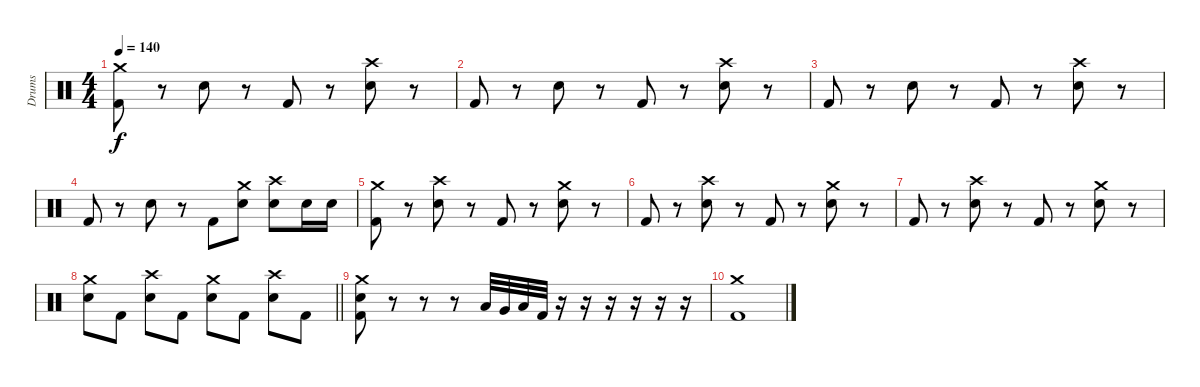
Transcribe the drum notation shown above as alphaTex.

\track ("Drums" "Drums") {instrument percussion}
\staff {score}
\articulation defaults
\ts (4 4)
\tempo 140
\clef neutral
\ks c
("Crash medium (hit)" "Kick (hit) 2").8{dy f} r.8 "Snare (hit) 2".8 r.8 "Kick (hit) 2".8 r.8 ("Crash high (hit)" "Snare (hit) 2").8 r.8 |
"Kick (hit) 2".8 r.8 "Snare (hit) 2".8 r.8 "Kick (hit) 2".8 r.8 ("Crash high (hit)" "Snare (hit) 2").8 r.8 |
"Kick (hit) 2".8 r.8 "Snare (hit) 2".8 r.8 "Kick (hit) 2".8 r.8 ("Crash high (hit)" "Snare (hit) 2").8 r.8 |
"Kick (hit) 2".8 r.8 "Snare (hit) 2".8 r.8 "Kick (hit) 2".8 ("Crash medium (hit)" "Snare (hit) 2").8 ("Crash high (hit)" "Snare (hit) 2").8 "Snare (hit) 2".16 "Snare (hit) 2".16 |
("Crash medium (hit)" "Kick (hit) 2").8 r.8 ("Crash high (hit)" "Snare (hit) 2").8 r.8 "Kick (hit) 2".8 r.8 ("Crash medium (hit)" "Snare (hit) 2").8 r.8 |
"Kick (hit) 2".8 r.8 ("Crash high (hit)" "Snare (hit) 2").8 r.8 "Kick (hit) 2".8 r.8 ("Crash medium (hit)" "Snare (hit) 2").8 r.8 |
"Kick (hit) 2".8 r.8 ("Crash high (hit)" "Snare (hit) 2").8 r.8 "Kick (hit) 2".8 r.8 ("Crash medium (hit)" "Snare (hit) 2").8 r.8 |
\barLineRight lightlight
("Crash medium (hit)" "Snare (hit) 2").8 "Kick (hit) 2".8 ("Crash high (hit)" "Snare (hit) 2").8 "Kick (hit) 2".8 ("Crash medium (hit)" "Snare (hit) 2").8 "Kick (hit) 2".8 ("Crash high (hit)" "Snare (hit) 2").8 "Kick (hit) 2".8 |
("Crash medium (hit)" "Snare (hit) 2" "Kick (hit) 2").8 r.8 r.8 r.8 "Low Tom (hit)".32 "Very Low Tom (hit)".32 "Low Floor Tom (hit)".32 "Kick (hit) 2".32 r.16 r.16 r.16 r.16 r.16 r.16 |
("Crash medium (hit)" "Kick (hit) 2").1
